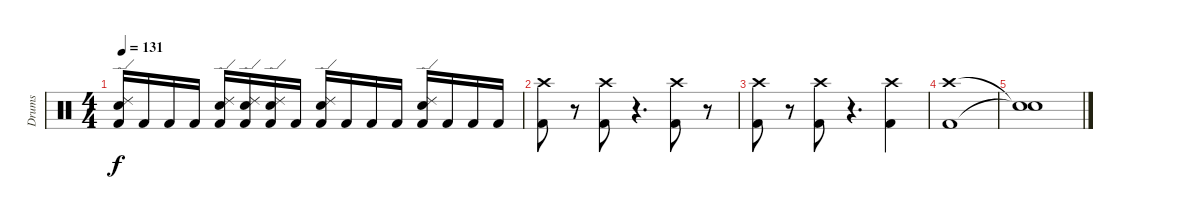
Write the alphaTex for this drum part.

\track ("Drums" "Drums") {instrument percussion}
\staff {score}
\articulation defaults
\ts (4 4)
\tempo 131
\clef neutral
\ks c
("Ride (edge) 2" "Electric Snare (hit)" "Kick (hit) 2").16{dy f} "Kick (hit) 2".16 "Kick (hit) 2".16 "Kick (hit) 2".16 ("Ride (edge) 2" "Electric Snare (hit)" "Kick (hit) 2").16 ("Ride (edge) 2" "Electric Snare (hit)" "Kick (hit) 2").16{volume 11} ("Ride (edge) 2" "Electric Snare (hit)" "Kick (hit) 2").16{volume 9} "Kick (hit) 2".16 ("Ride (edge) 2" "Electric Snare (hit)" "Kick (hit) 2").16{volume 13} "Kick (hit) 2".16 "Kick (hit) 2".16 "Kick (hit) 2".16 ("Ride (edge) 2" "Electric Snare (hit)" "Kick (hit) 2").16 "Kick (hit) 2".16 "Kick (hit) 2".16 "Kick (hit) 2".16 |
("Crash high (hit)" "Kick (hit) 2").8 r.8 ("Crash high (hit)" "Kick (hit) 2").8 r.4{d} ("Crash high (hit)" "Kick (hit) 2").8 r.8 |
("Crash high (hit)" "Kick (hit) 2").8 r.8 ("Crash high (hit)" "Kick (hit) 2").8 r.4{d} ("Crash high (hit)" "Kick (hit) 2").4 |
("Crash high (hit)" "Kick (hit) 2").1 |
("Snare (hit)"{t} "Snare (hit)"{t}).1
